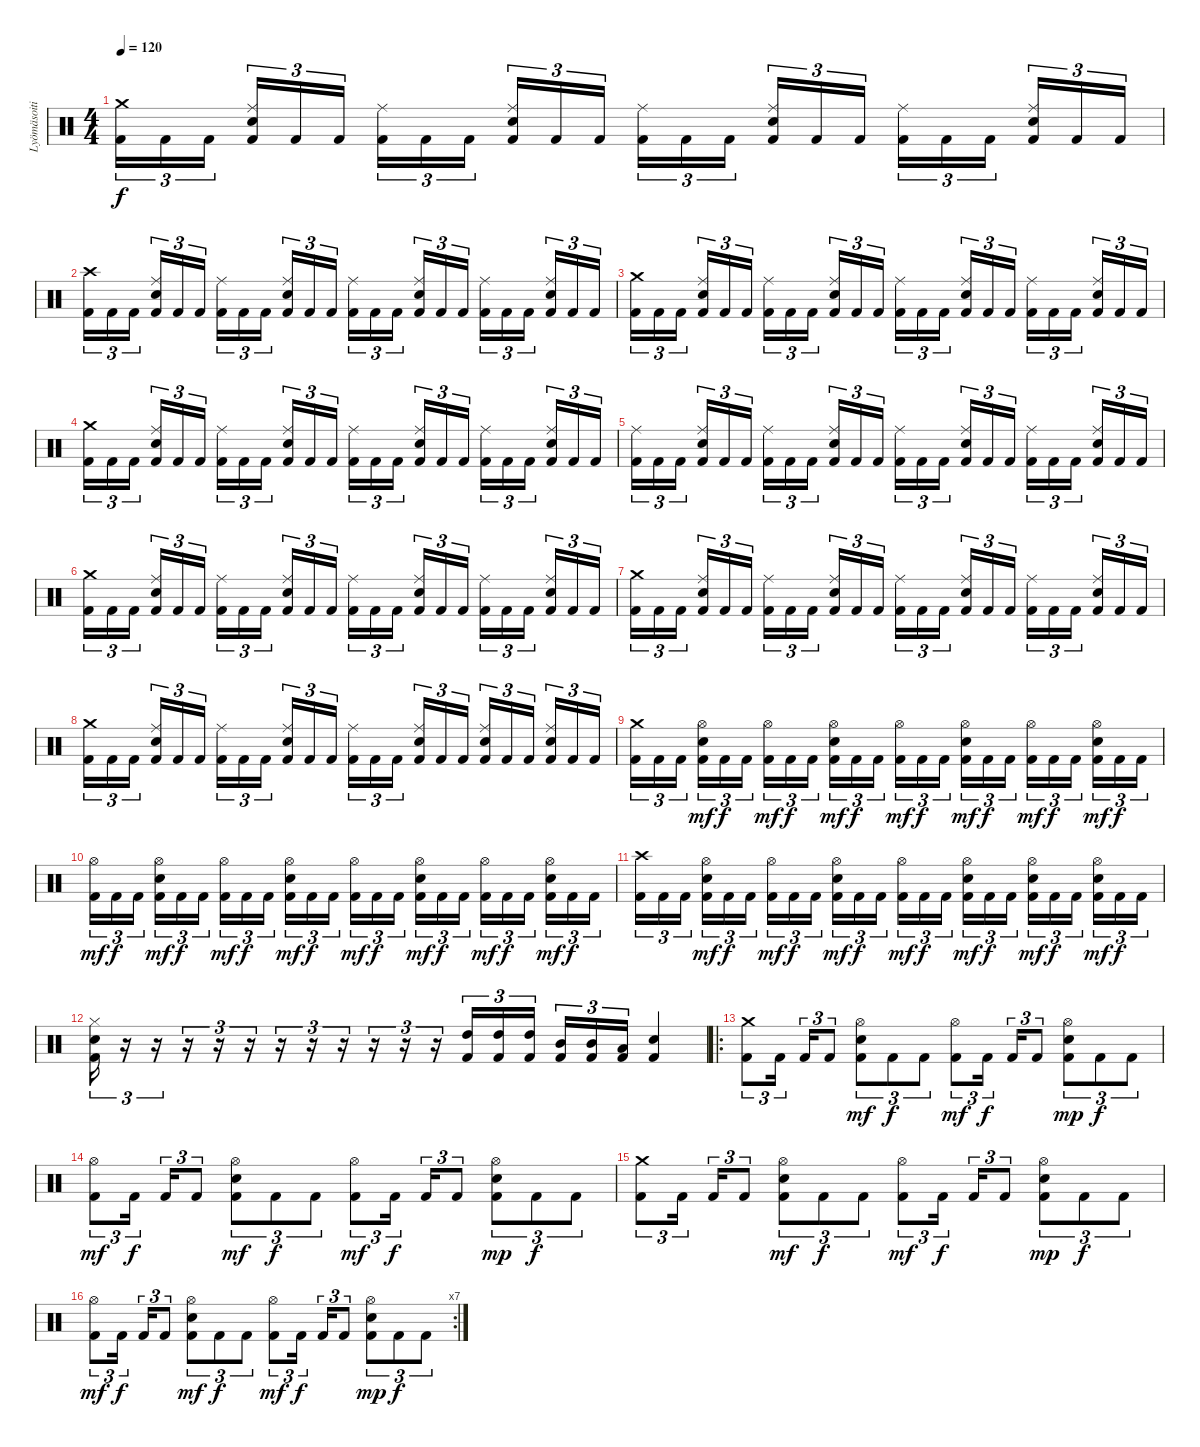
\track ("Lyömäsoitin" "Lyömäsoiti") {instrument percussion}
\staff {score}
\articulation defaults
\ts (4 4)
\tempo 120
\clef neutral
\ks c
("Crash medium (hit)" "Kick (hit) 2").16{tu (3 2) dy f} "Kick (hit) 2".16{tu (3 2)} "Kick (hit) 2".16{tu (3 2)} ("Ride (middle)" "Snare (hit) 2" "Kick (hit) 2").16{tu (3 2)} "Kick (hit) 2".16{tu (3 2)} "Kick (hit) 2".16{tu (3 2)} ("Ride (middle)" "Kick (hit) 2").16{tu (3 2)} "Kick (hit) 2".16{tu (3 2)} "Kick (hit) 2".16{tu (3 2)} ("Ride (middle)" "Snare (hit) 2" "Kick (hit) 2").16{tu (3 2)} "Kick (hit) 2".16{tu (3 2)} "Kick (hit) 2".16{tu (3 2)} ("Ride (middle)" "Kick (hit) 2").16{tu (3 2)} "Kick (hit) 2".16{tu (3 2)} "Kick (hit) 2".16{tu (3 2)} ("Ride (middle)" "Snare (hit) 2" "Kick (hit) 2").16{tu (3 2)} "Kick (hit) 2".16{tu (3 2)} "Kick (hit) 2".16{tu (3 2)} ("Ride (middle)" "Kick (hit) 2").16{tu (3 2)} "Kick (hit) 2".16{tu (3 2)} "Kick (hit) 2".16{tu (3 2)} ("Ride (middle)" "Snare (hit) 2" "Kick (hit) 2").16{tu (3 2)} "Kick (hit) 2".16{tu (3 2)} "Kick (hit) 2".16{tu (3 2)} |
("Crash high (hit)" "Kick (hit) 2").16{tu (3 2)} "Kick (hit) 2".16{tu (3 2)} "Kick (hit) 2".16{tu (3 2)} ("Ride (middle)" "Snare (hit) 2" "Kick (hit) 2").16{tu (3 2)} "Kick (hit) 2".16{tu (3 2)} "Kick (hit) 2".16{tu (3 2)} ("Ride (middle)" "Kick (hit) 2").16{tu (3 2)} "Kick (hit) 2".16{tu (3 2)} "Kick (hit) 2".16{tu (3 2)} ("Ride (middle)" "Snare (hit) 2" "Kick (hit) 2").16{tu (3 2)} "Kick (hit) 2".16{tu (3 2)} "Kick (hit) 2".16{tu (3 2)} ("Ride (middle)" "Kick (hit) 2").16{tu (3 2)} "Kick (hit) 2".16{tu (3 2)} "Kick (hit) 2".16{tu (3 2)} ("Ride (middle)" "Snare (hit) 2" "Kick (hit) 2").16{tu (3 2)} "Kick (hit) 2".16{tu (3 2)} "Kick (hit) 2".16{tu (3 2)} ("Ride (middle)" "Kick (hit) 2").16{tu (3 2)} "Kick (hit) 2".16{tu (3 2)} "Kick (hit) 2".16{tu (3 2)} ("Ride (middle)" "Snare (hit) 2" "Kick (hit) 2").16{tu (3 2)} "Kick (hit) 2".16{tu (3 2)} "Kick (hit) 2".16{tu (3 2)} |
("Crash medium (hit)" "Kick (hit) 2").16{tu (3 2)} "Kick (hit) 2".16{tu (3 2)} "Kick (hit) 2".16{tu (3 2)} ("Ride (middle)" "Snare (hit) 2" "Kick (hit) 2").16{tu (3 2)} "Kick (hit) 2".16{tu (3 2)} "Kick (hit) 2".16{tu (3 2)} ("Ride (middle)" "Kick (hit) 2").16{tu (3 2)} "Kick (hit) 2".16{tu (3 2)} "Kick (hit) 2".16{tu (3 2)} ("Ride (middle)" "Snare (hit) 2" "Kick (hit) 2").16{tu (3 2)} "Kick (hit) 2".16{tu (3 2)} "Kick (hit) 2".16{tu (3 2)} ("Ride (middle)" "Kick (hit) 2").16{tu (3 2)} "Kick (hit) 2".16{tu (3 2)} "Kick (hit) 2".16{tu (3 2)} ("Ride (middle)" "Snare (hit) 2" "Kick (hit) 2").16{tu (3 2)} "Kick (hit) 2".16{tu (3 2)} "Kick (hit) 2".16{tu (3 2)} ("Ride (middle)" "Kick (hit) 2").16{tu (3 2)} "Kick (hit) 2".16{tu (3 2)} "Kick (hit) 2".16{tu (3 2)} ("Ride (middle)" "Snare (hit) 2" "Kick (hit) 2").16{tu (3 2)} "Kick (hit) 2".16{tu (3 2)} "Kick (hit) 2".16{tu (3 2)} |
("Crash medium (hit)" "Kick (hit) 2").16{tu (3 2)} "Kick (hit) 2".16{tu (3 2)} "Kick (hit) 2".16{tu (3 2)} ("Ride (middle)" "Snare (hit) 2" "Kick (hit) 2").16{tu (3 2)} "Kick (hit) 2".16{tu (3 2)} "Kick (hit) 2".16{tu (3 2)} ("Ride (middle)" "Kick (hit) 2").16{tu (3 2)} "Kick (hit) 2".16{tu (3 2)} "Kick (hit) 2".16{tu (3 2)} ("Ride (middle)" "Snare (hit) 2" "Kick (hit) 2").16{tu (3 2)} "Kick (hit) 2".16{tu (3 2)} "Kick (hit) 2".16{tu (3 2)} ("Ride (middle)" "Kick (hit) 2").16{tu (3 2)} "Kick (hit) 2".16{tu (3 2)} "Kick (hit) 2".16{tu (3 2)} ("Ride (middle)" "Snare (hit) 2" "Kick (hit) 2").16{tu (3 2)} "Kick (hit) 2".16{tu (3 2)} "Kick (hit) 2".16{tu (3 2)} ("Ride (middle)" "Kick (hit) 2").16{tu (3 2)} "Kick (hit) 2".16{tu (3 2)} "Kick (hit) 2".16{tu (3 2)} ("Ride (middle)" "Snare (hit) 2" "Kick (hit) 2").16{tu (3 2)} "Kick (hit) 2".16{tu (3 2)} "Kick (hit) 2".16{tu (3 2)} |
("Ride (middle)" "Kick (hit) 2").16{tu (3 2)} "Kick (hit) 2".16{tu (3 2)} "Kick (hit) 2".16{tu (3 2)} ("Ride (middle)" "Snare (hit) 2" "Kick (hit) 2").16{tu (3 2)} "Kick (hit) 2".16{tu (3 2)} "Kick (hit) 2".16{tu (3 2)} ("Ride (middle)" "Kick (hit) 2").16{tu (3 2)} "Kick (hit) 2".16{tu (3 2)} "Kick (hit) 2".16{tu (3 2)} ("Ride (middle)" "Snare (hit) 2" "Kick (hit) 2").16{tu (3 2)} "Kick (hit) 2".16{tu (3 2)} "Kick (hit) 2".16{tu (3 2)} ("Ride (middle)" "Kick (hit) 2").16{tu (3 2)} "Kick (hit) 2".16{tu (3 2)} "Kick (hit) 2".16{tu (3 2)} ("Ride (middle)" "Snare (hit) 2" "Kick (hit) 2").16{tu (3 2)} "Kick (hit) 2".16{tu (3 2)} "Kick (hit) 2".16{tu (3 2)} ("Ride (middle)" "Kick (hit) 2").16{tu (3 2)} "Kick (hit) 2".16{tu (3 2)} "Kick (hit) 2".16{tu (3 2)} ("Ride (middle)" "Snare (hit) 2" "Kick (hit) 2").16{tu (3 2)} "Kick (hit) 2".16{tu (3 2)} "Kick (hit) 2".16{tu (3 2)} |
("Crash medium (hit)" "Kick (hit) 2").16{tu (3 2)} "Kick (hit) 2".16{tu (3 2)} "Kick (hit) 2".16{tu (3 2)} ("Ride (middle)" "Snare (hit) 2" "Kick (hit) 2").16{tu (3 2)} "Kick (hit) 2".16{tu (3 2)} "Kick (hit) 2".16{tu (3 2)} ("Ride (middle)" "Kick (hit) 2").16{tu (3 2)} "Kick (hit) 2".16{tu (3 2)} "Kick (hit) 2".16{tu (3 2)} ("Ride (middle)" "Snare (hit) 2" "Kick (hit) 2").16{tu (3 2)} "Kick (hit) 2".16{tu (3 2)} "Kick (hit) 2".16{tu (3 2)} ("Ride (middle)" "Kick (hit) 2").16{tu (3 2)} "Kick (hit) 2".16{tu (3 2)} "Kick (hit) 2".16{tu (3 2)} ("Ride (middle)" "Snare (hit) 2" "Kick (hit) 2").16{tu (3 2)} "Kick (hit) 2".16{tu (3 2)} "Kick (hit) 2".16{tu (3 2)} ("Ride (middle)" "Kick (hit) 2").16{tu (3 2)} "Kick (hit) 2".16{tu (3 2)} "Kick (hit) 2".16{tu (3 2)} ("Ride (middle)" "Snare (hit) 2" "Kick (hit) 2").16{tu (3 2)} "Kick (hit) 2".16{tu (3 2)} "Kick (hit) 2".16{tu (3 2)} |
("Crash medium (hit)" "Kick (hit) 2").16{tu (3 2)} "Kick (hit) 2".16{tu (3 2)} "Kick (hit) 2".16{tu (3 2)} ("Ride (middle)" "Snare (hit) 2" "Kick (hit) 2").16{tu (3 2)} "Kick (hit) 2".16{tu (3 2)} "Kick (hit) 2".16{tu (3 2)} ("Ride (middle)" "Kick (hit) 2").16{tu (3 2)} "Kick (hit) 2".16{tu (3 2)} "Kick (hit) 2".16{tu (3 2)} ("Ride (middle)" "Snare (hit) 2" "Kick (hit) 2").16{tu (3 2)} "Kick (hit) 2".16{tu (3 2)} "Kick (hit) 2".16{tu (3 2)} ("Ride (middle)" "Kick (hit) 2").16{tu (3 2)} "Kick (hit) 2".16{tu (3 2)} "Kick (hit) 2".16{tu (3 2)} ("Ride (middle)" "Snare (hit) 2" "Kick (hit) 2").16{tu (3 2)} "Kick (hit) 2".16{tu (3 2)} "Kick (hit) 2".16{tu (3 2)} ("Ride (middle)" "Kick (hit) 2").16{tu (3 2)} "Kick (hit) 2".16{tu (3 2)} "Kick (hit) 2".16{tu (3 2)} ("Ride (middle)" "Snare (hit) 2" "Kick (hit) 2").16{tu (3 2)} "Kick (hit) 2".16{tu (3 2)} "Kick (hit) 2".16{tu (3 2)} |
("Crash medium (hit)" "Kick (hit) 2").16{tu (3 2)} "Kick (hit) 2".16{tu (3 2)} "Kick (hit) 2".16{tu (3 2)} ("Ride (middle)" "Snare (hit) 2" "Kick (hit) 2").16{tu (3 2)} "Kick (hit) 2".16{tu (3 2)} "Kick (hit) 2".16{tu (3 2)} ("Ride (middle)" "Kick (hit) 2").16{tu (3 2)} "Kick (hit) 2".16{tu (3 2)} "Kick (hit) 2".16{tu (3 2)} ("Ride (middle)" "Snare (hit) 2" "Kick (hit) 2").16{tu (3 2)} "Kick (hit) 2".16{tu (3 2)} "Kick (hit) 2".16{tu (3 2)} ("Ride (middle)" "Kick (hit) 2").16{tu (3 2)} "Kick (hit) 2".16{tu (3 2)} "Kick (hit) 2".16{tu (3 2)} ("Ride (middle)" "Snare (hit) 2" "Kick (hit) 2").16{tu (3 2)} "Kick (hit) 2".16{tu (3 2)} "Kick (hit) 2".16{tu (3 2)} ("Ride (middle)" "Snare (hit) 2" "Kick (hit) 2").16{tu (3 2)} "Kick (hit) 2".16{tu (3 2)} "Kick (hit) 2".16{tu (3 2)} ("Ride (middle)" "Snare (hit) 2" "Kick (hit) 2").16{tu (3 2)} "Kick (hit) 2".16{tu (3 2)} "Kick (hit) 2".16{tu (3 2)} |
("Crash medium (hit)" "Kick (hit) 2").16{tu (3 2)} "Kick (hit) 2".16{tu (3 2)} "Kick (hit) 2".16{tu (3 2)} ("Hi-Hat (open)" "Snare (hit) 2" "Kick (hit) 2").16{tu (3 2) dy mf} "Kick (hit) 2".16{tu (3 2) dy f} "Kick (hit) 2".16{tu (3 2)} ("Hi-Hat (open)" "Kick (hit) 2").16{tu (3 2) dy mf} "Kick (hit) 2".16{tu (3 2) dy f} "Kick (hit) 2".16{tu (3 2)} ("Hi-Hat (open)" "Snare (hit) 2" "Kick (hit) 2").16{tu (3 2) dy mf} "Kick (hit) 2".16{tu (3 2) dy f} "Kick (hit) 2".16{tu (3 2)} ("Hi-Hat (open)" "Kick (hit) 2").16{tu (3 2) dy mf} "Kick (hit) 2".16{tu (3 2) dy f} "Kick (hit) 2".16{tu (3 2)} ("Hi-Hat (open)" "Snare (hit) 2" "Kick (hit) 2").16{tu (3 2) dy mf} "Kick (hit) 2".16{tu (3 2) dy f} "Kick (hit) 2".16{tu (3 2)} ("Hi-Hat (open)" "Kick (hit) 2").16{tu (3 2) dy mf} "Kick (hit) 2".16{tu (3 2) dy f} "Kick (hit) 2".16{tu (3 2)} ("Hi-Hat (open)" "Snare (hit) 2" "Kick (hit) 2").16{tu (3 2) dy mf} "Kick (hit) 2".16{tu (3 2) dy f} "Kick (hit) 2".16{tu (3 2)} |
("Hi-Hat (open)" "Kick (hit) 2").16{tu (3 2) dy mf} "Kick (hit) 2".16{tu (3 2) dy f} "Kick (hit) 2".16{tu (3 2)} ("Hi-Hat (open)" "Snare (hit) 2" "Kick (hit) 2").16{tu (3 2) dy mf} "Kick (hit) 2".16{tu (3 2) dy f} "Kick (hit) 2".16{tu (3 2)} ("Hi-Hat (open)" "Kick (hit) 2").16{tu (3 2) dy mf} "Kick (hit) 2".16{tu (3 2) dy f} "Kick (hit) 2".16{tu (3 2)} ("Hi-Hat (open)" "Snare (hit) 2" "Kick (hit) 2").16{tu (3 2) dy mf} "Kick (hit) 2".16{tu (3 2) dy f} "Kick (hit) 2".16{tu (3 2)} ("Hi-Hat (open)" "Kick (hit) 2").16{tu (3 2) dy mf} "Kick (hit) 2".16{tu (3 2) dy f} "Kick (hit) 2".16{tu (3 2)} ("Hi-Hat (open)" "Snare (hit) 2" "Kick (hit) 2").16{tu (3 2) dy mf} "Kick (hit) 2".16{tu (3 2) dy f} "Kick (hit) 2".16{tu (3 2)} ("Hi-Hat (open)" "Kick (hit) 2").16{tu (3 2) dy mf} "Kick (hit) 2".16{tu (3 2) dy f} "Kick (hit) 2".16{tu (3 2)} ("Hi-Hat (open)" "Snare (hit) 2" "Kick (hit) 2").16{tu (3 2) dy mf} "Kick (hit) 2".16{tu (3 2) dy f} "Kick (hit) 2".16{tu (3 2)} |
("Crash high (hit)" "Kick (hit) 2").16{tu (3 2)} "Kick (hit) 2".16{tu (3 2)} "Kick (hit) 2".16{tu (3 2)} ("Hi-Hat (open)" "Snare (hit) 2" "Kick (hit) 2").16{tu (3 2) dy mf} "Kick (hit) 2".16{tu (3 2) dy f} "Kick (hit) 2".16{tu (3 2)} ("Hi-Hat (open)" "Kick (hit) 2").16{tu (3 2) dy mf} "Kick (hit) 2".16{tu (3 2) dy f} "Kick (hit) 2".16{tu (3 2)} ("Hi-Hat (open)" "Snare (hit) 2" "Kick (hit) 2").16{tu (3 2) dy mf} "Kick (hit) 2".16{tu (3 2) dy f} "Kick (hit) 2".16{tu (3 2)} ("Hi-Hat (open)" "Kick (hit) 2").16{tu (3 2) dy mf} "Kick (hit) 2".16{tu (3 2) dy f} "Kick (hit) 2".16{tu (3 2)} ("Hi-Hat (open)" "Snare (hit) 2" "Kick (hit) 2").16{tu (3 2) dy mf} "Kick (hit) 2".16{tu (3 2) dy f} "Kick (hit) 2".16{tu (3 2)} ("Hi-Hat (open)" "Snare (hit) 2" "Kick (hit) 2").16{tu (3 2) dy mf} "Kick (hit) 2".16{tu (3 2) dy f} "Kick (hit) 2".16{tu (3 2)} ("Hi-Hat (open)" "Snare (hit) 2" "Kick (hit) 2").16{tu (3 2) dy mf} "Kick (hit) 2".16{tu (3 2) dy f} "Kick (hit) 2".16{tu (3 2)} |
("Hi-Hat (closed)" "Snare (hit) 2" "Kick (hit) 2").16{tu (3 2)} r.16{tu (3 2)} r.16{tu (3 2)} r.16{tu (3 2)} r.16{tu (3 2)} r.16{tu (3 2)} r.16{tu (3 2)} r.16{tu (3 2)} r.16{tu (3 2)} r.16{tu (3 2)} r.16{tu (3 2)} r.16{tu (3 2)} ("High Tom (hit)" "Kick (hit) 2").16{tu (3 2)} ("High Tom (hit)" "Kick (hit) 2").16{tu (3 2)} ("High Tom (hit)" "Kick (hit) 2").16{tu (3 2)} ("Mid Tom (hit)" "Kick (hit) 2").16{tu (3 2)} ("Mid Tom (hit)" "Kick (hit) 2").16{tu (3 2)} ("Low Tom (hit)" "Kick (hit) 2").16{tu (3 2)} ("Snare (hit) 2" "Kick (hit) 2").4 |
\ro
("Crash medium (hit)" "Kick (hit) 2").8{tu (3 2)} "Kick (hit) 2".16{tu (3 2)} "Kick (hit) 2".16{tu (3 2)} "Kick (hit) 2".8{tu (3 2)} ("Hi-Hat (open)" "Snare (hit) 2" "Kick (hit) 2").8{tu (3 2) dy mf} "Kick (hit) 2".8{tu (3 2) dy f} "Kick (hit) 2".8{tu (3 2)} ("Hi-Hat (open)" "Kick (hit) 2").8{tu (3 2) dy mf} "Kick (hit) 2".16{tu (3 2) dy f} "Kick (hit) 2".16{tu (3 2)} "Kick (hit) 2".8{tu (3 2)} ("Hi-Hat (open)" "Snare (hit) 2" "Kick (hit) 2").8{tu (3 2) dy mp} "Kick (hit) 2".8{tu (3 2) dy f} "Kick (hit) 2".8{tu (3 2)} |
("Hi-Hat (open)" "Kick (hit) 2").8{tu (3 2) dy mf} "Kick (hit) 2".16{tu (3 2) dy f} "Kick (hit) 2".16{tu (3 2)} "Kick (hit) 2".8{tu (3 2)} ("Hi-Hat (open)" "Snare (hit) 2" "Kick (hit) 2").8{tu (3 2) dy mf} "Kick (hit) 2".8{tu (3 2) dy f} "Kick (hit) 2".8{tu (3 2)} ("Hi-Hat (open)" "Kick (hit) 2").8{tu (3 2) dy mf} "Kick (hit) 2".16{tu (3 2) dy f} "Kick (hit) 2".16{tu (3 2)} "Kick (hit) 2".8{tu (3 2)} ("Hi-Hat (open)" "Snare (hit) 2" "Kick (hit) 2").8{tu (3 2) dy mp} "Kick (hit) 2".8{tu (3 2) dy f} "Kick (hit) 2".8{tu (3 2)} |
("Crash medium (hit)" "Kick (hit) 2").8{tu (3 2)} "Kick (hit) 2".16{tu (3 2)} "Kick (hit) 2".16{tu (3 2)} "Kick (hit) 2".8{tu (3 2)} ("Hi-Hat (open)" "Snare (hit) 2" "Kick (hit) 2").8{tu (3 2) dy mf} "Kick (hit) 2".8{tu (3 2) dy f} "Kick (hit) 2".8{tu (3 2)} ("Hi-Hat (open)" "Kick (hit) 2").8{tu (3 2) dy mf} "Kick (hit) 2".16{tu (3 2) dy f} "Kick (hit) 2".16{tu (3 2)} "Kick (hit) 2".8{tu (3 2)} ("Hi-Hat (open)" "Snare (hit) 2" "Kick (hit) 2").8{tu (3 2) dy mp} "Kick (hit) 2".8{tu (3 2) dy f} "Kick (hit) 2".8{tu (3 2)} |
\rc 7
("Hi-Hat (open)" "Kick (hit) 2").8{tu (3 2) dy mf} "Kick (hit) 2".16{tu (3 2) dy f} "Kick (hit) 2".16{tu (3 2)} "Kick (hit) 2".8{tu (3 2)} ("Hi-Hat (open)" "Snare (hit) 2" "Kick (hit) 2").8{tu (3 2) dy mf} "Kick (hit) 2".8{tu (3 2) dy f} "Kick (hit) 2".8{tu (3 2)} ("Hi-Hat (open)" "Kick (hit) 2").8{tu (3 2) dy mf} "Kick (hit) 2".16{tu (3 2) dy f} "Kick (hit) 2".16{tu (3 2)} "Kick (hit) 2".8{tu (3 2)} ("Hi-Hat (open)" "Snare (hit) 2" "Kick (hit) 2").8{tu (3 2) dy mp} "Kick (hit) 2".8{tu (3 2) dy f} "Kick (hit) 2".8{tu (3 2)}
